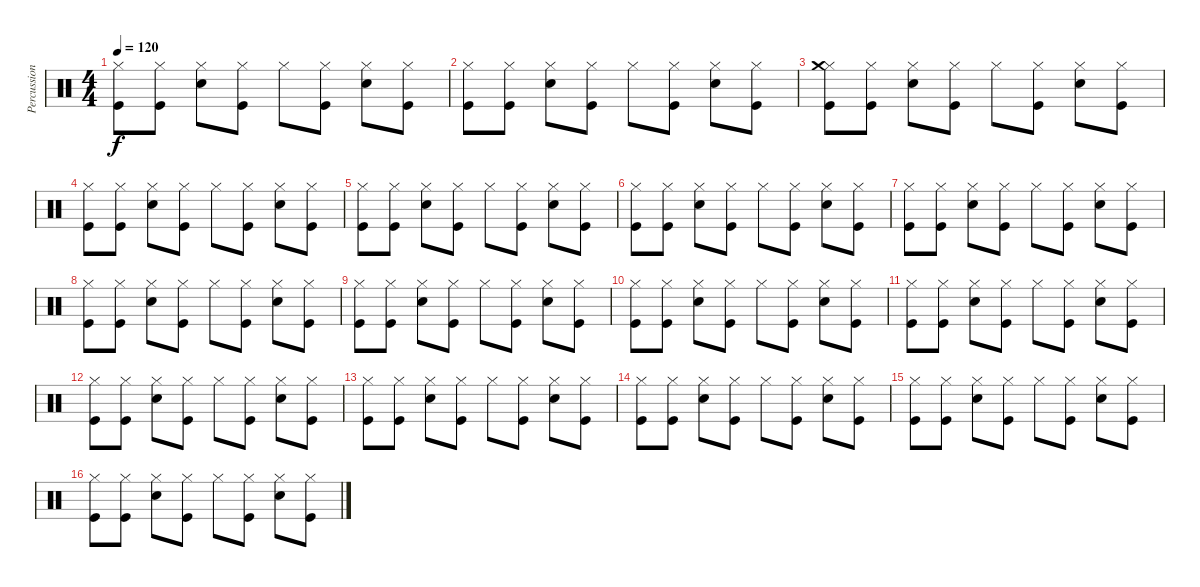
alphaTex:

\track ("Percussion" "Percussion") {instrument percussion}
\staff {score}
\articulation defaults
\ts (4 4)
\tempo 120
\clef neutral
\ks c
("Kick (hit)" "Hi-Hat (closed)").8{dy f} ("Kick (hit)" "Hi-Hat (closed)").8 ("Electric Snare (hit)" "Hi-Hat (closed)").8 ("Kick (hit)" "Hi-Hat (closed)").8 "Hi-Hat (closed)".8 ("Kick (hit)" "Hi-Hat (closed)").8 ("Electric Snare (hit)" "Hi-Hat (closed)").8 ("Kick (hit)" "Hi-Hat (closed)").8 |
("Kick (hit)" "Hi-Hat (closed)").8 ("Kick (hit)" "Hi-Hat (closed)").8 ("Electric Snare (hit)" "Hi-Hat (closed)").8 ("Kick (hit)" "Hi-Hat (closed)").8 "Hi-Hat (closed)".8 ("Kick (hit)" "Hi-Hat (closed)").8 ("Electric Snare (hit)" "Hi-Hat (closed)").8 ("Kick (hit)" "Hi-Hat (closed)").8 |
("Kick (hit)" "Hi-Hat (closed)" "Crash medium (hit)").8 ("Kick (hit)" "Hi-Hat (closed)").8 ("Electric Snare (hit)" "Hi-Hat (closed)").8 ("Kick (hit)" "Hi-Hat (closed)").8 "Hi-Hat (closed)".8 ("Kick (hit)" "Hi-Hat (closed)").8 ("Electric Snare (hit)" "Hi-Hat (closed)").8 ("Kick (hit)" "Hi-Hat (closed)").8 |
("Kick (hit)" "Hi-Hat (closed)").8 ("Kick (hit)" "Hi-Hat (closed)").8 ("Electric Snare (hit)" "Hi-Hat (closed)").8 ("Kick (hit)" "Hi-Hat (closed)").8 "Hi-Hat (closed)".8 ("Kick (hit)" "Hi-Hat (closed)").8 ("Electric Snare (hit)" "Hi-Hat (closed)").8 ("Kick (hit)" "Hi-Hat (closed)").8 |
("Kick (hit)" "Hi-Hat (closed)").8 ("Kick (hit)" "Hi-Hat (closed)").8 ("Electric Snare (hit)" "Hi-Hat (closed)").8 ("Kick (hit)" "Hi-Hat (closed)").8 "Hi-Hat (closed)".8 ("Kick (hit)" "Hi-Hat (closed)").8 ("Electric Snare (hit)" "Hi-Hat (closed)").8 ("Kick (hit)" "Hi-Hat (closed)").8 |
("Kick (hit)" "Hi-Hat (closed)").8 ("Kick (hit)" "Hi-Hat (closed)").8 ("Electric Snare (hit)" "Hi-Hat (closed)").8 ("Kick (hit)" "Hi-Hat (closed)").8 "Hi-Hat (closed)".8 ("Kick (hit)" "Hi-Hat (closed)").8 ("Electric Snare (hit)" "Hi-Hat (closed)").8 ("Kick (hit)" "Hi-Hat (closed)").8 |
("Kick (hit)" "Hi-Hat (closed)").8 ("Kick (hit)" "Hi-Hat (closed)").8 ("Electric Snare (hit)" "Hi-Hat (closed)").8 ("Kick (hit)" "Hi-Hat (closed)").8 "Hi-Hat (closed)".8 ("Kick (hit)" "Hi-Hat (closed)").8 ("Electric Snare (hit)" "Hi-Hat (closed)").8 ("Kick (hit)" "Hi-Hat (closed)").8 |
("Kick (hit)" "Hi-Hat (closed)").8 ("Kick (hit)" "Hi-Hat (closed)").8 ("Electric Snare (hit)" "Hi-Hat (closed)").8 ("Kick (hit)" "Hi-Hat (closed)").8 "Hi-Hat (closed)".8 ("Kick (hit)" "Hi-Hat (closed)").8 ("Electric Snare (hit)" "Hi-Hat (closed)").8 ("Kick (hit)" "Hi-Hat (closed)").8 |
("Kick (hit)" "Hi-Hat (closed)").8 ("Kick (hit)" "Hi-Hat (closed)").8 ("Electric Snare (hit)" "Hi-Hat (closed)").8 ("Kick (hit)" "Hi-Hat (closed)").8 "Hi-Hat (closed)".8 ("Kick (hit)" "Hi-Hat (closed)").8 ("Electric Snare (hit)" "Hi-Hat (closed)").8 ("Kick (hit)" "Hi-Hat (closed)").8 |
("Kick (hit)" "Hi-Hat (closed)").8 ("Kick (hit)" "Hi-Hat (closed)").8 ("Electric Snare (hit)" "Hi-Hat (closed)").8 ("Kick (hit)" "Hi-Hat (closed)").8 "Hi-Hat (closed)".8 ("Kick (hit)" "Hi-Hat (closed)").8 ("Electric Snare (hit)" "Hi-Hat (closed)").8 ("Kick (hit)" "Hi-Hat (closed)").8 |
("Kick (hit)" "Hi-Hat (closed)").8 ("Kick (hit)" "Hi-Hat (closed)").8 ("Electric Snare (hit)" "Hi-Hat (closed)").8 ("Kick (hit)" "Hi-Hat (closed)").8 "Hi-Hat (closed)".8 ("Kick (hit)" "Hi-Hat (closed)").8 ("Electric Snare (hit)" "Hi-Hat (closed)").8 ("Kick (hit)" "Hi-Hat (closed)").8 |
("Kick (hit)" "Hi-Hat (closed)").8 ("Kick (hit)" "Hi-Hat (closed)").8 ("Electric Snare (hit)" "Hi-Hat (closed)").8 ("Kick (hit)" "Hi-Hat (closed)").8 "Hi-Hat (closed)".8 ("Kick (hit)" "Hi-Hat (closed)").8 ("Electric Snare (hit)" "Hi-Hat (closed)").8 ("Kick (hit)" "Hi-Hat (closed)").8 |
("Kick (hit)" "Hi-Hat (closed)").8 ("Kick (hit)" "Hi-Hat (closed)").8 ("Electric Snare (hit)" "Hi-Hat (closed)").8 ("Kick (hit)" "Hi-Hat (closed)").8 "Hi-Hat (closed)".8 ("Kick (hit)" "Hi-Hat (closed)").8 ("Electric Snare (hit)" "Hi-Hat (closed)").8 ("Kick (hit)" "Hi-Hat (closed)").8 |
("Kick (hit)" "Hi-Hat (closed)").8 ("Kick (hit)" "Hi-Hat (closed)").8 ("Electric Snare (hit)" "Hi-Hat (closed)").8 ("Kick (hit)" "Hi-Hat (closed)").8 "Hi-Hat (closed)".8 ("Kick (hit)" "Hi-Hat (closed)").8 ("Electric Snare (hit)" "Hi-Hat (closed)").8 ("Kick (hit)" "Hi-Hat (closed)").8 |
("Kick (hit)" "Hi-Hat (closed)").8 ("Kick (hit)" "Hi-Hat (closed)").8 ("Electric Snare (hit)" "Hi-Hat (closed)").8 ("Kick (hit)" "Hi-Hat (closed)").8 "Hi-Hat (closed)".8 ("Kick (hit)" "Hi-Hat (closed)").8 ("Electric Snare (hit)" "Hi-Hat (closed)").8 ("Kick (hit)" "Hi-Hat (closed)").8 |
("Kick (hit)" "Hi-Hat (closed)").8 ("Kick (hit)" "Hi-Hat (closed)").8 ("Electric Snare (hit)" "Hi-Hat (closed)").8 ("Kick (hit)" "Hi-Hat (closed)").8 "Hi-Hat (closed)".8 ("Kick (hit)" "Hi-Hat (closed)").8 ("Electric Snare (hit)" "Hi-Hat (closed)").8 ("Kick (hit)" "Hi-Hat (closed)").8
